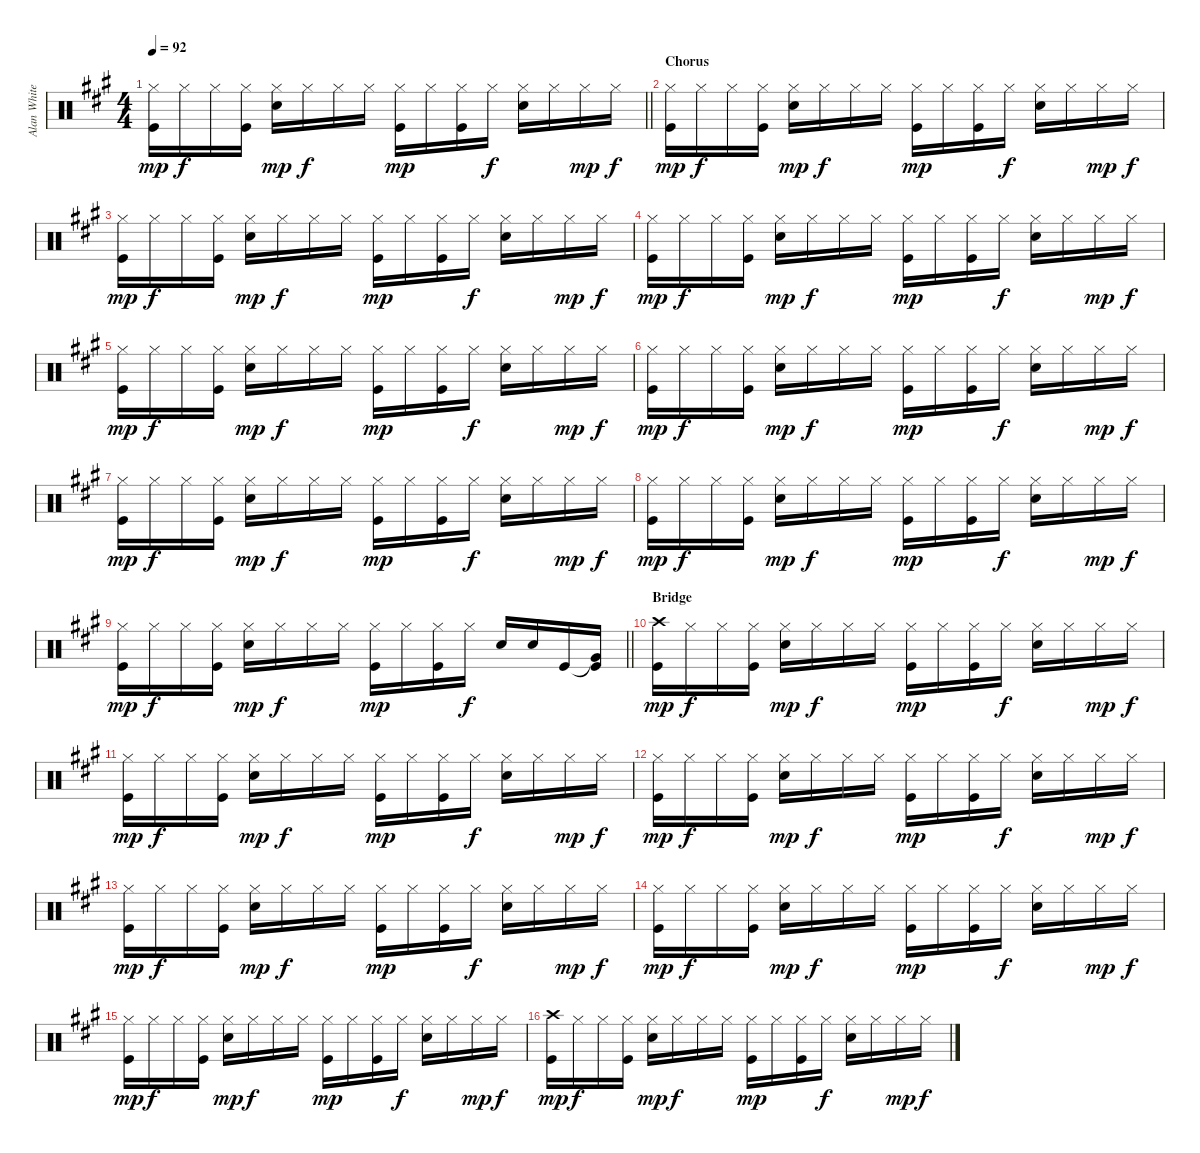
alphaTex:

\track ("Alan White" "Alan White") {instrument percussion}
\staff {score}
\articulation defaults
\ts (4 4)
\tempo 92
\clef neutral
\barLineRight lightlight
\ks a
("Hi-Hat (closed)" "Kick (hit)").16{dy mp} "Hi-Hat (closed)".16{dy f} "Hi-Hat (closed)".16 ("Hi-Hat (closed)" "Kick (hit)").16 ("Hi-Hat (closed)" "Snare (hit) 2").16{dy mp} "Hi-Hat (closed)".16{dy f} "Hi-Hat (closed)".16 "Hi-Hat (closed)".16 ("Hi-Hat (closed)" "Kick (hit)").16{dy mp} "Hi-Hat (closed)".16 ("Hi-Hat (closed)" "Kick (hit)").16 "Hi-Hat (closed)".16{dy f} ("Hi-Hat (closed)" "Snare (hit) 2").16 "Hi-Hat (closed)".16 "Hi-Hat (closed)".16{dy mp} "Hi-Hat (closed)".16{dy f} |
\section ("" "Chorus")
("Hi-Hat (closed)" "Kick (hit)").16{dy mp} "Hi-Hat (closed)".16{dy f} "Hi-Hat (closed)".16 ("Hi-Hat (closed)" "Kick (hit)").16 ("Hi-Hat (closed)" "Snare (hit) 2").16{dy mp} "Hi-Hat (closed)".16{dy f} "Hi-Hat (closed)".16 "Hi-Hat (closed)".16 ("Hi-Hat (closed)" "Kick (hit)").16{dy mp} "Hi-Hat (closed)".16 ("Hi-Hat (closed)" "Kick (hit)").16 "Hi-Hat (closed)".16{dy f} ("Hi-Hat (closed)" "Snare (hit) 2").16 "Hi-Hat (closed)".16 "Hi-Hat (closed)".16{dy mp} "Hi-Hat (closed)".16{dy f} |
("Hi-Hat (closed)" "Kick (hit)").16{dy mp} "Hi-Hat (closed)".16{dy f} "Hi-Hat (closed)".16 ("Hi-Hat (closed)" "Kick (hit)").16 ("Hi-Hat (closed)" "Snare (hit) 2").16{dy mp} "Hi-Hat (closed)".16{dy f} "Hi-Hat (closed)".16 "Hi-Hat (closed)".16 ("Hi-Hat (closed)" "Kick (hit)").16{dy mp} "Hi-Hat (closed)".16 ("Hi-Hat (closed)" "Kick (hit)").16 "Hi-Hat (closed)".16{dy f} ("Hi-Hat (closed)" "Snare (hit) 2").16 "Hi-Hat (closed)".16 "Hi-Hat (closed)".16{dy mp} "Hi-Hat (closed)".16{dy f} |
("Hi-Hat (closed)" "Kick (hit)").16{dy mp} "Hi-Hat (closed)".16{dy f} "Hi-Hat (closed)".16 ("Hi-Hat (closed)" "Kick (hit)").16 ("Hi-Hat (closed)" "Snare (hit) 2").16{dy mp} "Hi-Hat (closed)".16{dy f} "Hi-Hat (closed)".16 "Hi-Hat (closed)".16 ("Hi-Hat (closed)" "Kick (hit)").16{dy mp} "Hi-Hat (closed)".16 ("Hi-Hat (closed)" "Kick (hit)").16 "Hi-Hat (closed)".16{dy f} ("Hi-Hat (closed)" "Snare (hit) 2").16 "Hi-Hat (closed)".16 "Hi-Hat (closed)".16{dy mp} "Hi-Hat (closed)".16{dy f} |
("Hi-Hat (closed)" "Kick (hit)").16{dy mp} "Hi-Hat (closed)".16{dy f} "Hi-Hat (closed)".16 ("Hi-Hat (closed)" "Kick (hit)").16 ("Hi-Hat (closed)" "Snare (hit) 2").16{dy mp} "Hi-Hat (closed)".16{dy f} "Hi-Hat (closed)".16 "Hi-Hat (closed)".16 ("Hi-Hat (closed)" "Kick (hit)").16{dy mp} "Hi-Hat (closed)".16 ("Hi-Hat (closed)" "Kick (hit)").16 "Hi-Hat (closed)".16{dy f} ("Hi-Hat (closed)" "Snare (hit) 2").16 "Hi-Hat (closed)".16 "Hi-Hat (closed)".16{dy mp} "Hi-Hat (closed)".16{dy f} |
("Hi-Hat (closed)" "Kick (hit)").16{dy mp} "Hi-Hat (closed)".16{dy f} "Hi-Hat (closed)".16 ("Hi-Hat (closed)" "Kick (hit)").16 ("Hi-Hat (closed)" "Snare (hit) 2").16{dy mp} "Hi-Hat (closed)".16{dy f} "Hi-Hat (closed)".16 "Hi-Hat (closed)".16 ("Hi-Hat (closed)" "Kick (hit)").16{dy mp} "Hi-Hat (closed)".16 ("Hi-Hat (closed)" "Kick (hit)").16 "Hi-Hat (closed)".16{dy f} ("Hi-Hat (closed)" "Snare (hit) 2").16 "Hi-Hat (closed)".16 "Hi-Hat (closed)".16{dy mp} "Hi-Hat (closed)".16{dy f} |
("Hi-Hat (closed)" "Kick (hit)").16{dy mp} "Hi-Hat (closed)".16{dy f} "Hi-Hat (closed)".16 ("Hi-Hat (closed)" "Kick (hit)").16 ("Hi-Hat (closed)" "Snare (hit) 2").16{dy mp} "Hi-Hat (closed)".16{dy f} "Hi-Hat (closed)".16 "Hi-Hat (closed)".16 ("Hi-Hat (closed)" "Kick (hit)").16{dy mp} "Hi-Hat (closed)".16 ("Hi-Hat (closed)" "Kick (hit)").16 "Hi-Hat (closed)".16{dy f} ("Hi-Hat (closed)" "Snare (hit) 2").16 "Hi-Hat (closed)".16 "Hi-Hat (closed)".16{dy mp} "Hi-Hat (closed)".16{dy f} |
("Hi-Hat (closed)" "Kick (hit)").16{dy mp} "Hi-Hat (closed)".16{dy f} "Hi-Hat (closed)".16 ("Hi-Hat (closed)" "Kick (hit)").16 ("Hi-Hat (closed)" "Snare (hit) 2").16{dy mp} "Hi-Hat (closed)".16{dy f} "Hi-Hat (closed)".16 "Hi-Hat (closed)".16 ("Hi-Hat (closed)" "Kick (hit)").16{dy mp} "Hi-Hat (closed)".16 ("Hi-Hat (closed)" "Kick (hit)").16 "Hi-Hat (closed)".16{dy f} ("Hi-Hat (closed)" "Snare (hit) 2").16 "Hi-Hat (closed)".16 "Hi-Hat (closed)".16{dy mp} "Hi-Hat (closed)".16{dy f} |
\barLineRight lightlight
("Hi-Hat (closed)" "Kick (hit)").16{dy mp} "Hi-Hat (closed)".16{dy f} "Hi-Hat (closed)".16 ("Hi-Hat (closed)" "Kick (hit)").16 ("Hi-Hat (closed)" "Snare (hit) 2").16{dy mp} "Hi-Hat (closed)".16{dy f} "Hi-Hat (closed)".16 "Hi-Hat (closed)".16 ("Hi-Hat (closed)" "Kick (hit)").16{dy mp} "Hi-Hat (closed)".16 ("Hi-Hat (closed)" "Kick (hit)").16 "Hi-Hat (closed)".16{dy f} "Snare (hit) 2".16 "Snare (hit) 2".16 "Kick (hit)".16 ("Very Low Tom (hit)"{t} "Kick (hit)").16 |
\section ("" "Bridge")
("Crash high (hit)" "Kick (hit)").16{dy mp} "Hi-Hat (closed)".16{dy f} "Hi-Hat (closed)".16 ("Hi-Hat (closed)" "Kick (hit)").16 ("Hi-Hat (closed)" "Snare (hit) 2").16{dy mp} "Hi-Hat (closed)".16{dy f} "Hi-Hat (closed)".16 "Hi-Hat (closed)".16 ("Hi-Hat (closed)" "Kick (hit)").16{dy mp} "Hi-Hat (closed)".16 ("Hi-Hat (closed)" "Kick (hit)").16 "Hi-Hat (closed)".16{dy f} ("Hi-Hat (closed)" "Snare (hit) 2").16 "Hi-Hat (closed)".16 "Hi-Hat (closed)".16{dy mp} "Hi-Hat (closed)".16{dy f} |
("Hi-Hat (closed)" "Kick (hit)").16{dy mp} "Hi-Hat (closed)".16{dy f} "Hi-Hat (closed)".16 ("Hi-Hat (closed)" "Kick (hit)").16 ("Hi-Hat (closed)" "Snare (hit) 2").16{dy mp} "Hi-Hat (closed)".16{dy f} "Hi-Hat (closed)".16 "Hi-Hat (closed)".16 ("Hi-Hat (closed)" "Kick (hit)").16{dy mp} "Hi-Hat (closed)".16 ("Hi-Hat (closed)" "Kick (hit)").16 "Hi-Hat (closed)".16{dy f} ("Hi-Hat (closed)" "Snare (hit) 2").16 "Hi-Hat (closed)".16 "Hi-Hat (closed)".16{dy mp} "Hi-Hat (closed)".16{dy f} |
("Hi-Hat (closed)" "Kick (hit)").16{dy mp} "Hi-Hat (closed)".16{dy f} "Hi-Hat (closed)".16 ("Hi-Hat (closed)" "Kick (hit)").16 ("Hi-Hat (closed)" "Snare (hit) 2").16{dy mp} "Hi-Hat (closed)".16{dy f} "Hi-Hat (closed)".16 "Hi-Hat (closed)".16 ("Hi-Hat (closed)" "Kick (hit)").16{dy mp} "Hi-Hat (closed)".16 ("Hi-Hat (closed)" "Kick (hit)").16 "Hi-Hat (closed)".16{dy f} ("Hi-Hat (closed)" "Snare (hit) 2").16 "Hi-Hat (closed)".16 "Hi-Hat (closed)".16{dy mp} "Hi-Hat (closed)".16{dy f} |
("Hi-Hat (closed)" "Kick (hit)").16{dy mp} "Hi-Hat (closed)".16{dy f} "Hi-Hat (closed)".16 ("Hi-Hat (closed)" "Kick (hit)").16 ("Hi-Hat (closed)" "Snare (hit) 2").16{dy mp} "Hi-Hat (closed)".16{dy f} "Hi-Hat (closed)".16 "Hi-Hat (closed)".16 ("Hi-Hat (closed)" "Kick (hit)").16{dy mp} "Hi-Hat (closed)".16 ("Hi-Hat (closed)" "Kick (hit)").16 "Hi-Hat (closed)".16{dy f} ("Hi-Hat (closed)" "Snare (hit) 2").16 "Hi-Hat (closed)".16 "Hi-Hat (closed)".16{dy mp} "Hi-Hat (closed)".16{dy f} |
("Hi-Hat (closed)" "Kick (hit)").16{dy mp} "Hi-Hat (closed)".16{dy f} "Hi-Hat (closed)".16 ("Hi-Hat (closed)" "Kick (hit)").16 ("Hi-Hat (closed)" "Snare (hit) 2").16{dy mp} "Hi-Hat (closed)".16{dy f} "Hi-Hat (closed)".16 "Hi-Hat (closed)".16 ("Hi-Hat (closed)" "Kick (hit)").16{dy mp} "Hi-Hat (closed)".16 ("Hi-Hat (closed)" "Kick (hit)").16 "Hi-Hat (closed)".16{dy f} ("Hi-Hat (closed)" "Snare (hit) 2").16 "Hi-Hat (closed)".16 "Hi-Hat (closed)".16{dy mp} "Hi-Hat (closed)".16{dy f} |
("Hi-Hat (closed)" "Kick (hit)").16{dy mp} "Hi-Hat (closed)".16{dy f} "Hi-Hat (closed)".16 ("Hi-Hat (closed)" "Kick (hit)").16 ("Hi-Hat (closed)" "Snare (hit) 2").16{dy mp} "Hi-Hat (closed)".16{dy f} "Hi-Hat (closed)".16 "Hi-Hat (closed)".16 ("Hi-Hat (closed)" "Kick (hit)").16{dy mp} "Hi-Hat (closed)".16 ("Hi-Hat (closed)" "Kick (hit)").16 "Hi-Hat (closed)".16{dy f} ("Hi-Hat (closed)" "Snare (hit) 2").16 "Hi-Hat (closed)".16 "Hi-Hat (closed)".16{dy mp} "Hi-Hat (closed)".16{dy f} |
("Crash high (hit)" "Kick (hit)").16{dy mp} "Hi-Hat (closed)".16{dy f} "Hi-Hat (closed)".16 ("Hi-Hat (closed)" "Kick (hit)").16 ("Hi-Hat (closed)" "Snare (hit) 2").16{dy mp} "Hi-Hat (closed)".16{dy f} "Hi-Hat (closed)".16 "Hi-Hat (closed)".16 ("Hi-Hat (closed)" "Kick (hit)").16{dy mp} "Hi-Hat (closed)".16 ("Hi-Hat (closed)" "Kick (hit)").16 "Hi-Hat (closed)".16{dy f} ("Hi-Hat (closed)" "Snare (hit) 2").16 "Hi-Hat (closed)".16 "Hi-Hat (closed)".16{dy mp} "Hi-Hat (closed)".16{dy f}
